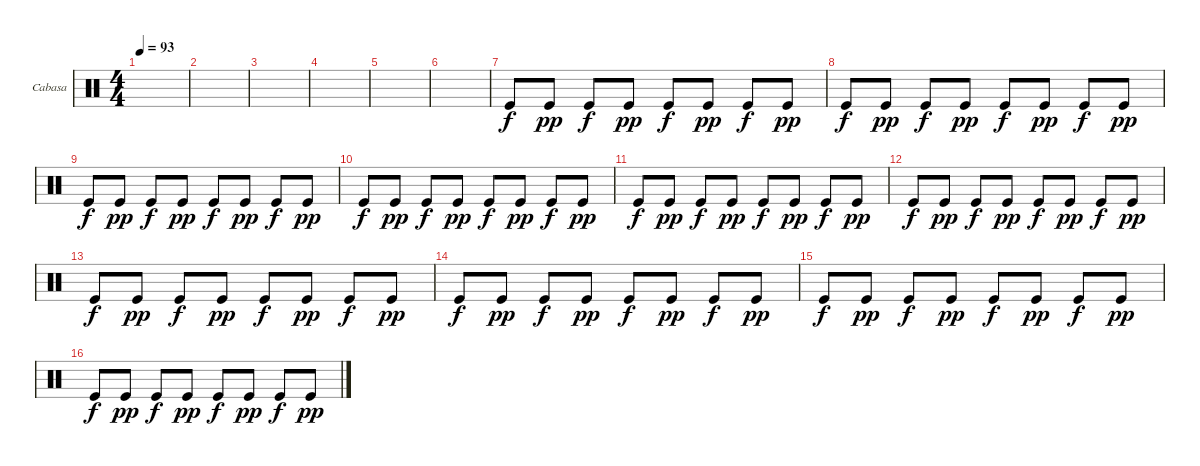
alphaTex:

\defaultSystemsLayout 4
\bracketExtendMode groupsimilarinstruments
\firstSystemTrackNameOrientation horizontal
\otherSystemsTrackNameOrientation horizontal
\track ("Cabasa" "Cabasa") {instrument percussion}
\staff {score}
\articulation defaults
\ts (4 4)
\tempo 93
\clef neutral
\ks c
|
|
|
|
|
|
"Kick (hit)".8{dy f} "Kick (hit)".8{dy pp} "Kick (hit)".8{dy f} "Kick (hit)".8{dy pp} "Kick (hit)".8{dy f} "Kick (hit)".8{dy pp} "Kick (hit)".8{dy f} "Kick (hit)".8{dy pp} |
"Kick (hit)".8{dy f} "Kick (hit)".8{dy pp} "Kick (hit)".8{dy f} "Kick (hit)".8{dy pp} "Kick (hit)".8{dy f} "Kick (hit)".8{dy pp} "Kick (hit)".8{dy f} "Kick (hit)".8{dy pp} |
"Kick (hit)".8{dy f} "Kick (hit)".8{dy pp} "Kick (hit)".8{dy f} "Kick (hit)".8{dy pp} "Kick (hit)".8{dy f} "Kick (hit)".8{dy pp} "Kick (hit)".8{dy f} "Kick (hit)".8{dy pp} |
"Kick (hit)".8{dy f} "Kick (hit)".8{dy pp} "Kick (hit)".8{dy f} "Kick (hit)".8{dy pp} "Kick (hit)".8{dy f} "Kick (hit)".8{dy pp} "Kick (hit)".8{dy f} "Kick (hit)".8{dy pp} |
"Kick (hit)".8{dy f} "Kick (hit)".8{dy pp} "Kick (hit)".8{dy f} "Kick (hit)".8{dy pp} "Kick (hit)".8{dy f} "Kick (hit)".8{dy pp} "Kick (hit)".8{dy f} "Kick (hit)".8{dy pp} |
"Kick (hit)".8{dy f} "Kick (hit)".8{dy pp} "Kick (hit)".8{dy f} "Kick (hit)".8{dy pp} "Kick (hit)".8{dy f} "Kick (hit)".8{dy pp} "Kick (hit)".8{dy f} "Kick (hit)".8{dy pp} |
"Kick (hit)".8{dy f} "Kick (hit)".8{dy pp} "Kick (hit)".8{dy f} "Kick (hit)".8{dy pp} "Kick (hit)".8{dy f} "Kick (hit)".8{dy pp} "Kick (hit)".8{dy f} "Kick (hit)".8{dy pp} |
"Kick (hit)".8{dy f} "Kick (hit)".8{dy pp} "Kick (hit)".8{dy f} "Kick (hit)".8{dy pp} "Kick (hit)".8{dy f} "Kick (hit)".8{dy pp} "Kick (hit)".8{dy f} "Kick (hit)".8{dy pp} |
"Kick (hit)".8{dy f} "Kick (hit)".8{dy pp} "Kick (hit)".8{dy f} "Kick (hit)".8{dy pp} "Kick (hit)".8{dy f} "Kick (hit)".8{dy pp} "Kick (hit)".8{dy f} "Kick (hit)".8{dy pp} |
"Kick (hit)".8{dy f} "Kick (hit)".8{dy pp} "Kick (hit)".8{dy f} "Kick (hit)".8{dy pp} "Kick (hit)".8{dy f} "Kick (hit)".8{dy pp} "Kick (hit)".8{dy f} "Kick (hit)".8{dy pp}
